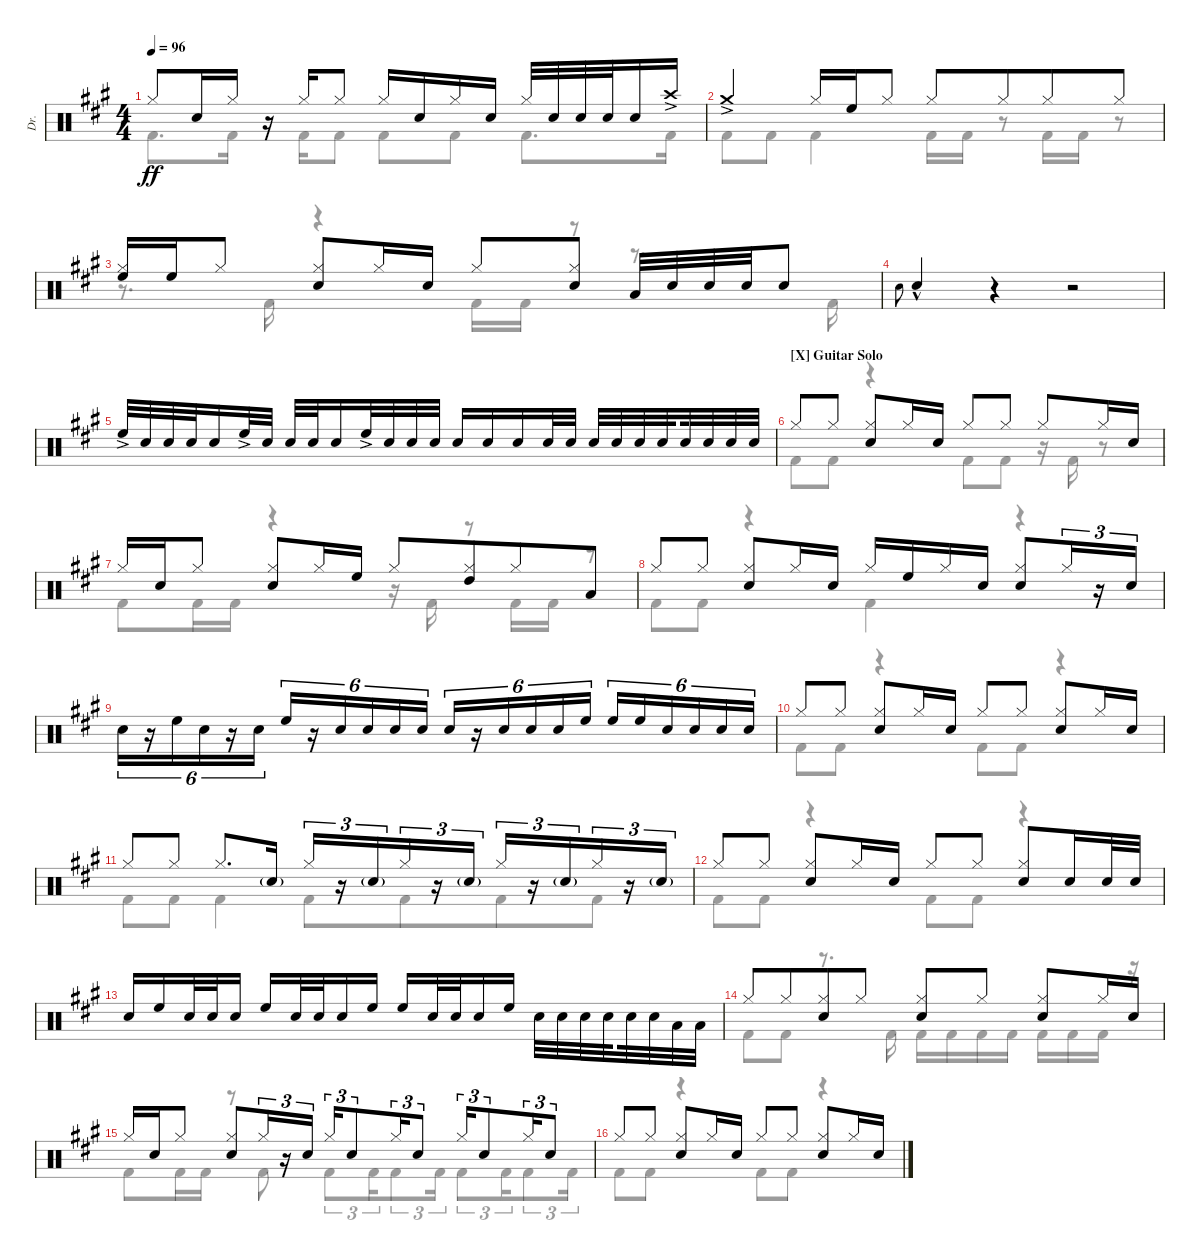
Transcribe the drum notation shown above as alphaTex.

\defaultSystemsLayout 4
\bracketExtendMode groupsimilarinstruments
\otherSystemsTrackNameOrientation horizontal
\track ("Drums" "Dr.") {instrument percussion}
\staff {score}
\articulation defaults
\voice
\ts (4 4)
\tempo 96
\clef neutral
\ks a "Hi-Hat (closed)"{acc forcenatural}.8{dy ff} "Snare (hit) 2"{acc forcenatural}.16 "Hi-Hat (closed)"{acc forcenatural}.16
r.16 "Hi-Hat (closed)"{acc forcenatural}.16 "Hi-Hat (closed)"{acc forcenatural}.8 "Hi-Hat (closed)"{acc forcenatural}.16 "Snare (hit) 2"{acc forcenatural}.16 "Hi-Hat (closed)"{acc forcenatural}.16 "Snare (hit) 2"{acc forcenatural}.16 "Hi-Hat (closed)"{acc forcenatural}.32 "Snare (hit) 2"{acc forcenatural}.32 "Snare (hit) 2"{acc forcenatural}.32 "Snare (hit) 2"{acc forcenatural}.32 "Snare (hit) 2"{acc forcenatural}.16 "Crash high (hit)"{ac acc forcenatural}.16 |
"Crash medium (hit)"{ac acc forcenatural}.4 "Hi-Hat (closed)"{acc forcenatural}.16 "High Floor Tom (hit)"{acc forcenatural}.16 "Hi-Hat (closed)"{acc forcenatural}.8 "Hi-Hat (closed)"{acc forcenatural}.8 "Hi-Hat (closed)"{acc forcenatural}.8{beam merge} "Hi-Hat (closed)"{acc forcenatural}.8 "Hi-Hat (closed)"{acc forcenatural}.8 |
("High Floor Tom (hit)"{acc forcenatural} "Hi-Hat (closed)"{acc forcenatural}).16 "High Floor Tom (hit)"{acc forcenatural}.16 "Hi-Hat (closed)"{acc forcenatural}.8 ("Snare (hit) 2"{acc forcenatural} "Hi-Hat (closed)"{acc forcenatural}).8 "Hi-Hat (closed)"{acc forcenatural}.16 "Snare (hit) 2"{acc forcenatural}.16 "Hi-Hat (closed)"{acc forcenatural}.8 ("Hi-Hat (closed)"{acc forcenatural} "Snare (hit) 2"{acc forcenatural}).8 "Low Tom (hit)"{acc forcenatural}.32 "Snare (hit) 2"{acc forcenatural}.32 "Snare (hit) 2"{acc forcenatural}.32 "Snare (hit) 2"{acc forcenatural}.32 "Snare (hit) 2"{acc forcenatural}.8 |
"Snare (hit) 2"{acc forcenatural}.8{gr onbeat beam invert} "Snare (hit) 2"{hac acc forcenatural}.4{beam invert} r.4 r.2 |
"High Floor Tom (hit)"{ac acc forcenatural}.32{beam invert} "Snare (hit) 2"{acc forcenatural}.32 "Snare (hit) 2"{acc forcenatural}.32 "Snare (hit) 2"{acc forcenatural}.32 "Snare (hit) 2"{acc forcenatural}.16 "High Floor Tom (hit)"{ac acc forcenatural}.32 "Snare (hit) 2"{acc forcenatural}.32 "Snare (hit) 2"{acc forcenatural}.32{beam invert} "Snare (hit) 2"{acc forcenatural}.32 "Snare (hit) 2"{acc forcenatural}.16 "High Floor Tom (hit)"{ac acc forcenatural}.32 "Snare (hit) 2"{acc forcenatural}.32 "Snare (hit) 2"{acc forcenatural}.32 "Snare (hit) 2"{acc forcenatural}.32 "Snare (hit) 2"{acc forcenatural}.16{beam invert} "Snare (hit) 2"{acc forcenatural}.16 "Snare (hit) 2"{acc forcenatural}.16 "Snare (hit) 2"{acc forcenatural}.32 "Snare (hit) 2"{acc forcenatural}.32 "Snare (hit) 2"{acc forcenatural}.32{beam invert} "Snare (hit) 2"{acc forcenatural}.32 "Snare (hit) 2"{acc forcenatural}.32 "Snare (hit) 2"{acc forcenatural}.32{beam splitsecondary} "Snare (hit) 2"{acc forcenatural}.32 "Snare (hit) 2"{acc forcenatural}.32 "Snare (hit) 2"{acc forcenatural}.32 "Snare (hit) 2"{acc forcenatural}.32 |
\section ("X" "Guitar Solo")
"Hi-Hat (closed)"{acc forcenatural}.8 "Hi-Hat (closed)"{acc forcenatural}.8 ("Hi-Hat (closed)"{acc forcenatural} "Snare (hit) 2"{acc forcenatural}).8 "Hi-Hat (closed)"{acc forcenatural}.16 "Snare (hit) 2"{acc forcenatural}.16 "Hi-Hat (closed)"{acc forcenatural}.8 "Hi-Hat (closed)"{acc forcenatural}.8 "Hi-Hat (closed)"{acc forcenatural}.8 "Hi-Hat (closed)"{acc forcenatural}.16 "Snare (hit) 2"{acc forcenatural}.16 |
"Hi-Hat (closed)"{acc forcenatural}.16 "Snare (hit) 2"{acc forcenatural}.16 "Hi-Hat (closed)"{acc forcenatural}.8 ("Hi-Hat (closed)"{acc forcenatural} "Snare (hit) 2"{acc forcenatural}).8 "Hi-Hat (closed)"{acc forcenatural}.16 "High Floor Tom (hit)"{acc forcenatural}.16 "Hi-Hat (closed)"{acc forcenatural}.8 ("Hi-Hat (closed)"{acc forcenatural} "High Tom (hit)"{acc forcenatural}).8{beam merge} "Hi-Hat (closed)"{acc forcenatural}.8 "Low Tom (hit)"{acc forcenatural}.8 |
"Hi-Hat (closed)"{acc forcenatural}.8 "Hi-Hat (closed)"{acc forcenatural}.8 ("Hi-Hat (closed)"{acc forcenatural} "Snare (hit) 2"{acc forcenatural}).8 "Hi-Hat (closed)"{acc forcenatural}.16 "Snare (hit) 2"{acc forcenatural}.16 "Hi-Hat (closed)"{acc forcenatural}.16 "High Floor Tom (hit)"{acc forcenatural}.16 "Hi-Hat (closed)"{acc forcenatural}.16 "Snare (hit) 2"{acc forcenatural}.16 ("Snare (hit) 2"{acc forcenatural} "Hi-Hat (closed)"{acc forcenatural}).8{beam merge} "Hi-Hat (closed)"{acc forcenatural}.16{tu (3 2)} r.16{tu (3 2)} "Snare (hit) 2"{acc forcenatural}.16{tu (3 2)} |
"Snare (hit) 2"{acc forcenatural}.16{tu (6 4)} r.16{tu (6 4)} "High Floor Tom (hit)"{acc forcenatural}.16{tu (6 4)} "Snare (hit) 2"{acc forcenatural}.16{tu (6 4)} r.16{tu (6 4)} "Snare (hit) 2"{acc forcenatural}.16{tu (6 4)} "High Floor Tom (hit)"{acc forcenatural}.16{tu (6 4)} r.16{tu (6 4)} "Snare (hit) 2"{acc forcenatural}.16{tu (6 4)} "Snare (hit) 2"{acc forcenatural}.16{tu (6 4)} "Snare (hit) 2"{acc forcenatural}.16{tu (6 4)} "Snare (hit) 2"{acc forcenatural}.16{tu (6 4)} "Snare (hit) 2"{acc forcenatural}.16{tu (6 4) beam invert} r.16{tu (6 4)} "Snare (hit) 2"{acc forcenatural}.16{tu (6 4)} "Snare (hit) 2"{acc forcenatural}.16{tu (6 4)} "Snare (hit) 2"{acc forcenatural}.16{tu (6 4)} "High Floor Tom (hit)"{acc forcenatural}.16{tu (6 4)} "High Floor Tom (hit)"{acc forcenatural}.16{tu (6 4) beam invert} "High Floor Tom (hit)"{acc forcenatural}.16{tu (6 4)} "Snare (hit) 2"{acc forcenatural}.16{tu (6 4)} "Snare (hit) 2"{acc forcenatural}.16{tu (6 4)} "Snare (hit) 2"{acc forcenatural}.16{tu (6 4)} "Snare (hit) 2"{acc forcenatural}.16{tu (6 4)} |
"Hi-Hat (closed)"{acc forcenatural}.8 "Hi-Hat (closed)"{acc forcenatural}.8 ("Hi-Hat (closed)"{acc forcenatural} "Snare (hit) 2"{acc forcenatural}).8 "Hi-Hat (closed)"{acc forcenatural}.16 "Snare (hit) 2"{acc forcenatural}.16 "Hi-Hat (closed)"{acc forcenatural}.8 "Hi-Hat (closed)"{acc forcenatural}.8 ("Hi-Hat (closed)"{acc forcenatural} "Snare (hit) 2"{acc forcenatural}).8 "Hi-Hat (closed)"{acc forcenatural}.16 "Snare (hit) 2"{acc forcenatural}.16 |
"Hi-Hat (closed)"{acc forcenatural}.8 "Hi-Hat (closed)"{acc forcenatural}.8 "Hi-Hat (closed)"{acc forcenatural}.8{d} "Snare (hit) 2"{g acc forcenatural}.16 "Hi-Hat (closed)"{acc forcenatural}.16{tu (3 2)} r.16{tu (3 2) beam merge} "Snare (hit) 2"{g acc forcenatural}.16{tu (3 2) beam merge} "Hi-Hat (closed)"{acc forcenatural}.16{tu (3 2) beam merge} r.16{tu (3 2)} "Snare (hit) 2"{g acc forcenatural}.16{tu (3 2)} "Hi-Hat (closed)"{acc forcenatural}.16{tu (3 2) beam merge} r.16{tu (3 2) beam merge} "Snare (hit) 2"{g acc forcenatural}.16{tu (3 2) beam merge} "Hi-Hat (closed)"{acc forcenatural}.16{tu (3 2) beam merge} r.16{tu (3 2) beam merge} "Snare (hit) 2"{g acc forcenatural}.16{tu (3 2)} |
"Hi-Hat (closed)"{acc forcenatural}.8 "Hi-Hat (closed)"{acc forcenatural}.8 ("Hi-Hat (closed)"{acc forcenatural} "Snare (hit) 2"{acc forcenatural}).8 "Hi-Hat (closed)"{acc forcenatural}.16 "Snare (hit) 2"{acc forcenatural}.16 "Hi-Hat (closed)"{acc forcenatural}.8 "Hi-Hat (closed)"{acc forcenatural}.8 ("Hi-Hat (closed)"{acc forcenatural} "Snare (hit) 2"{acc forcenatural}).8 "Snare (hit) 2"{acc forcenatural}.16 "Snare (hit) 2"{acc forcenatural}.32 "Snare (hit) 2"{acc forcenatural}.32 |
"Snare (hit) 2"{acc forcenatural}.16{beam invert} "High Floor Tom (hit)"{acc forcenatural}.16 "Snare (hit) 2"{acc forcenatural}.32 "Snare (hit) 2"{acc forcenatural}.32 "Snare (hit) 2"{acc forcenatural}.16 "High Floor Tom (hit)"{acc forcenatural}.16{beam invert} "Snare (hit) 2"{acc forcenatural}.32 "Snare (hit) 2"{acc forcenatural}.32 "Snare (hit) 2"{acc forcenatural}.16 "High Floor Tom (hit)"{acc forcenatural}.16 "High Floor Tom (hit)"{acc forcenatural}.16{beam invert} "Snare (hit) 2"{acc forcenatural}.32 "Snare (hit) 2"{acc forcenatural}.32 "Snare (hit) 2"{acc forcenatural}.16 "High Floor Tom (hit)"{acc forcenatural}.16 "Snare (hit) 2"{acc forcenatural}.32 "Snare (hit) 2"{acc forcenatural}.32 "Snare (hit) 2"{acc forcenatural}.32 "Snare (hit) 2"{acc forcenatural}.32{beam splitsecondary} "Snare (hit) 2"{acc forcenatural}.32 "Snare (hit) 2"{acc forcenatural}.32 "Low Tom (hit)"{acc forcenatural}.32 "Low Tom (hit)"{acc forcenatural}.32 |
"Hi-Hat (closed)"{acc forcenatural}.8 "Hi-Hat (closed)"{acc forcenatural}.8{beam merge} ("Hi-Hat (closed)"{acc forcenatural} "Snare (hit) 2"{acc forcenatural}).8 "Hi-Hat (closed)"{acc forcenatural}.8 ("Hi-Hat (closed)"{acc forcenatural} "Snare (hit) 2"{acc forcenatural}).8 "Hi-Hat (closed)"{acc forcenatural}.8 ("Hi-Hat (closed)"{acc forcenatural} "Snare (hit) 2"{acc forcenatural}).8 "Hi-Hat (closed)"{acc forcenatural}.16 "Snare (hit) 2"{acc forcenatural}.16 |
"Hi-Hat (closed)"{acc forcenatural}.16 "Snare (hit) 2"{acc forcenatural}.16 "Hi-Hat (closed)"{acc forcenatural}.8 ("Hi-Hat (closed)"{acc forcenatural} "Snare (hit) 2"{acc forcenatural}).8{beam merge} "Hi-Hat (closed)"{acc forcenatural}.16{tu (3 2)} r.16{tu (3 2)} "Snare (hit) 2"{acc forcenatural}.16{tu (3 2)} "Hi-Hat (closed)"{acc forcenatural}.16{tu (3 2)} "Snare (hit) 2"{acc forcenatural}.8{tu (3 2) beam merge} "Hi-Hat (closed)"{acc forcenatural}.16{tu (3 2) beam merge} "Snare (hit) 2"{acc forcenatural}.8{tu (3 2)} "Hi-Hat (closed)"{acc forcenatural}.16{tu (3 2) beam merge} "Snare (hit) 2"{acc forcenatural}.8{tu (3 2) beam merge} "Hi-Hat (closed)"{acc forcenatural}.16{tu (3 2) beam merge} "Snare (hit) 2"{acc forcenatural}.8{tu (3 2)} |
"Hi-Hat (closed)"{acc forcenatural}.8 "Hi-Hat (closed)"{acc forcenatural}.8 ("Hi-Hat (closed)"{acc forcenatural} "Snare (hit) 2"{acc forcenatural}).8 "Hi-Hat (closed)"{acc forcenatural}.16 "Snare (hit) 2"{acc forcenatural}.16 "Hi-Hat (closed)"{acc forcenatural}.8 "Hi-Hat (closed)"{acc forcenatural}.8 ("Hi-Hat (closed)"{acc forcenatural} "Snare (hit) 2"{acc forcenatural}).8 "Hi-Hat (closed)"{acc forcenatural}.16 "Snare (hit) 2"{acc forcenatural}.16
\voice
\clef neutral
\ottava regular
\simile none
\ks a "Kick (hit) 2"{acc forcenatural}.8{d dy ff} "Kick (hit) 2"{acc forcenatural}.16
r.16 "Kick (hit) 2"{acc forcenatural}.16 "Kick (hit) 2"{acc forcenatural}.8 "Kick (hit) 2"{acc forcenatural}.8 "Kick (hit) 2"{acc forcenatural}.8 "Kick (hit) 2"{acc forcenatural}.8{d} "Kick (hit) 2"{acc forcenatural}.16 |
"Kick (hit) 2"{acc forcenatural}.8 "Kick (hit) 2"{acc forcenatural}.8 "Kick (hit) 2"{acc forcenatural}.4 "Kick (hit) 2"{acc forcenatural}.16 "Kick (hit) 2"{acc forcenatural}.16 r.8 "Kick (hit) 2"{acc forcenatural}.16 "Kick (hit) 2"{acc forcenatural}.16 r.8 |
r.8{d} "Kick (hit) 2"{acc forcenatural}.16 r.4 "Kick (hit) 2"{acc forcenatural}.16 "Kick (hit) 2"{acc forcenatural}.16 r.8 r.8{d} "Kick (hit) 2"{acc forcenatural}.16 |
|
|
"Kick (hit) 2"{acc forcenatural}.8 "Kick (hit) 2"{acc forcenatural}.8 r.4 "Kick (hit) 2"{acc forcenatural}.8 "Kick (hit) 2"{acc forcenatural}.8 r.16 "Kick (hit) 2"{acc forcenatural}.16 r.8 |
"Kick (hit) 2"{acc forcenatural}.8 "Kick (hit) 2"{acc forcenatural}.16 "Kick (hit) 2"{acc forcenatural}.16 r.4 r.16 "Kick (hit) 2"{acc forcenatural}.16 r.8 "Kick (hit) 2"{acc forcenatural}.16 "Kick (hit) 2"{acc forcenatural}.16 r.8 |
"Kick (hit) 2"{acc forcenatural}.8 "Kick (hit) 2"{acc forcenatural}.8 r.4 "Kick (hit) 2"{acc forcenatural}.4 r.4 |
|
"Kick (hit) 2"{acc forcenatural}.8 "Kick (hit) 2"{acc forcenatural}.8 r.4 "Kick (hit) 2"{acc forcenatural}.8 "Kick (hit) 2"{acc forcenatural}.8 r.4 |
"Kick (hit) 2"{acc forcenatural}.8 "Kick (hit) 2"{acc forcenatural}.8 "Kick (hit) 2"{acc forcenatural}.4 "Kick (hit) 2"{acc forcenatural}.8 "Kick (hit) 2"{acc forcenatural}.8{beam merge} "Kick (hit) 2"{acc forcenatural}.8{beam merge} "Kick (hit) 2"{acc forcenatural}.8{beam merge} |
"Kick (hit) 2"{acc forcenatural}.8 "Kick (hit) 2"{acc forcenatural}.8 r.4 "Kick (hit) 2"{acc forcenatural}.8 "Kick (hit) 2"{acc forcenatural}.8 r.4 |
|
"Kick (hit) 2"{acc forcenatural}.8 "Kick (hit) 2"{acc forcenatural}.8 r.8{d} "Kick (hit) 2"{acc forcenatural}.16 "Kick (hit) 2"{acc forcenatural}.16 "Kick (hit) 2"{acc forcenatural}.16 "Kick (hit) 2"{acc forcenatural}.16 "Kick (hit) 2"{acc forcenatural}.16 "Kick (hit) 2"{acc forcenatural}.16 "Kick (hit) 2"{acc forcenatural}.16 "Kick (hit) 2"{acc forcenatural}.16 r.16 |
"Kick (hit) 2"{acc forcenatural}.8 "Kick (hit) 2"{acc forcenatural}.16 "Kick (hit) 2"{acc forcenatural}.16 r.8 "Kick (hit) 2"{acc forcenatural}.8 "Kick (hit) 2"{acc forcenatural}.8{tu (3 2) beam merge} "Kick (hit) 2"{acc forcenatural}.16{tu (3 2) beam merge} "Kick (hit) 2"{acc forcenatural}.8{tu (3 2) beam merge} "Kick (hit) 2"{acc forcenatural}.16{tu (3 2) beam split} "Kick (hit) 2"{acc forcenatural}.8{tu (3 2)} "Kick (hit) 2"{acc forcenatural}.16{tu (3 2) beam merge} "Kick (hit) 2"{acc forcenatural}.8{tu (3 2)} "Kick (hit) 2"{acc forcenatural}.16{tu (3 2)} |
"Kick (hit) 2"{acc forcenatural}.8 "Kick (hit) 2"{acc forcenatural}.8 r.4 "Kick (hit) 2"{acc forcenatural}.8 "Kick (hit) 2"{acc forcenatural}.8 r.4
